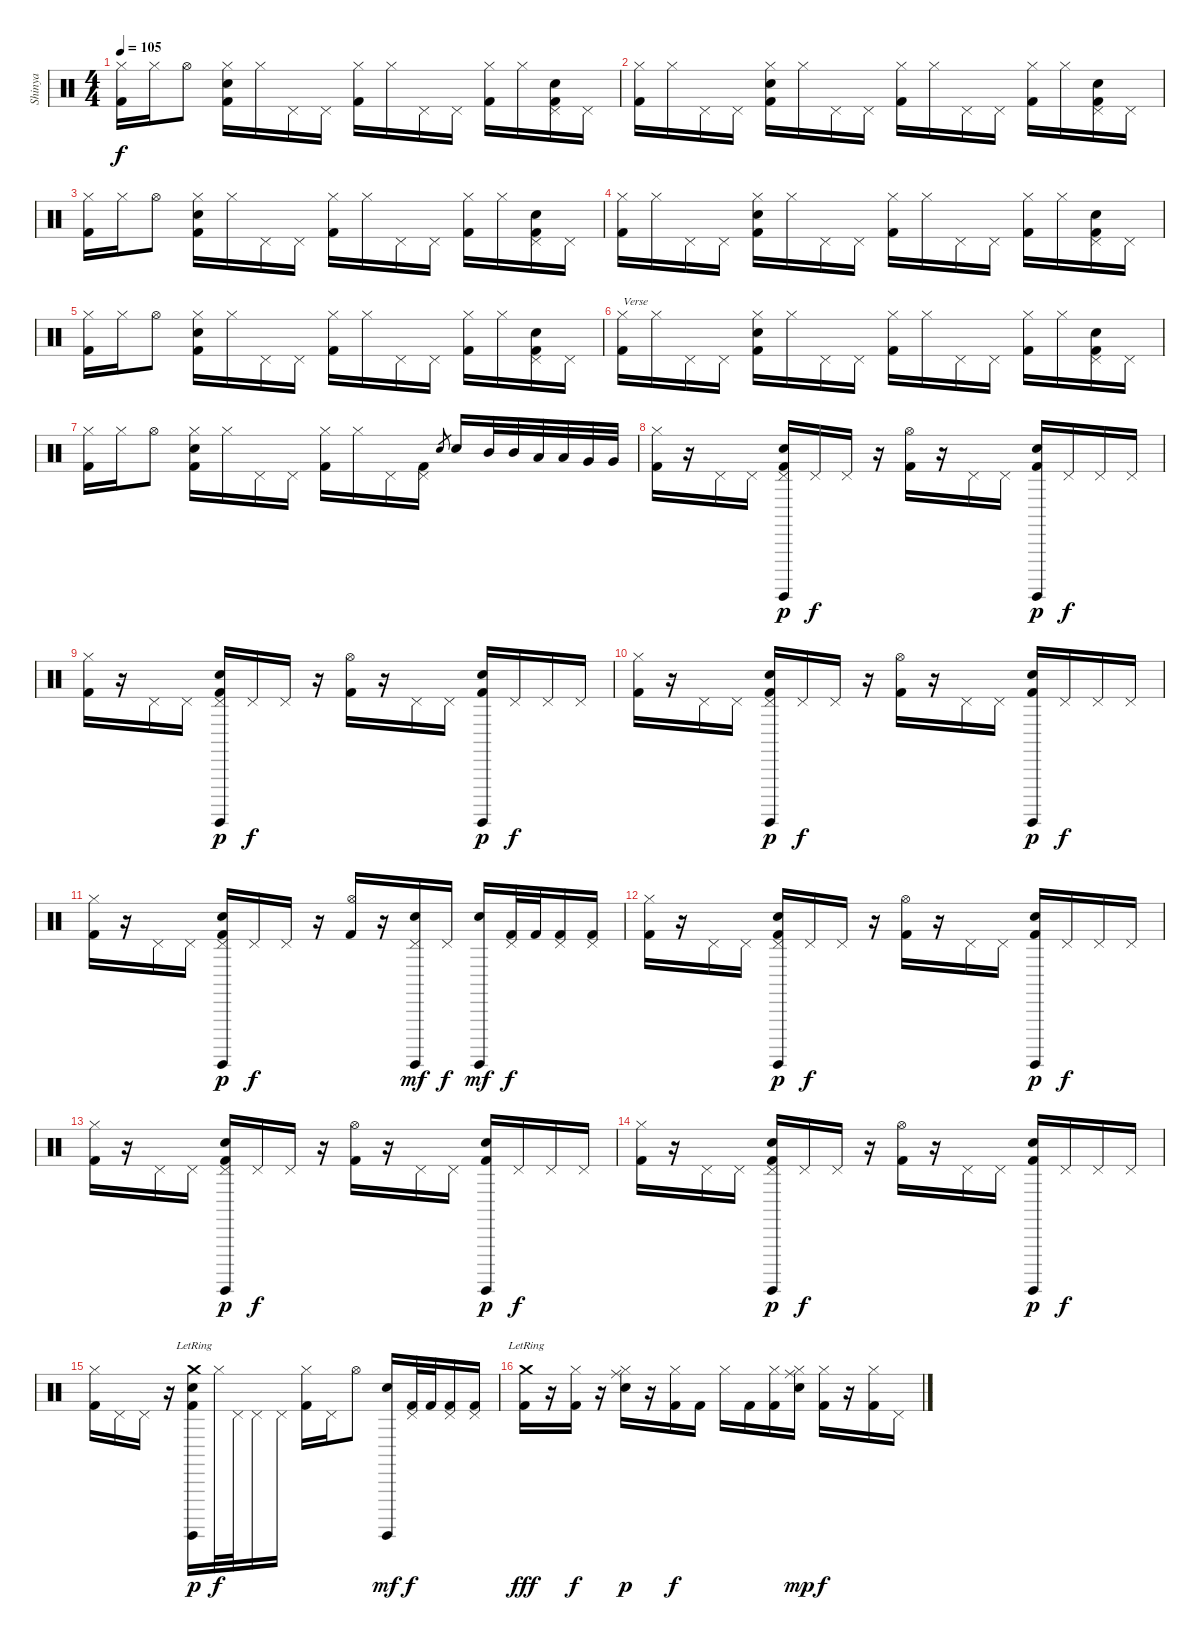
\track ("Shinya" "Shinya") {instrument percussion}
\staff {score}
\articulation defaults
\ts (4 4)
\tempo 105
\clef neutral
\ks c
("Hi-Hat (closed)" "Kick (hit) 2").16{dy f} "Hi-Hat (closed)".16 "Hi-Hat (open)".8 ("Hi-Hat (closed)" "Electric Snare (hit)" "Kick (hit) 2").16 "Hi-Hat (closed)".16 "Pedal Hi-Hat (hit)".16 "Pedal Hi-Hat (hit)".16 ("Hi-Hat (closed)" "Kick (hit) 2").16 "Hi-Hat (closed)".16 "Pedal Hi-Hat (hit)".16 "Pedal Hi-Hat (hit)".16 ("Hi-Hat (closed)" "Kick (hit) 2").16 "Hi-Hat (closed)".16 ("Pedal Hi-Hat (hit)" "Electric Snare (hit)" "Kick (hit) 2").16 "Pedal Hi-Hat (hit)".16 |
("Hi-Hat (closed)" "Kick (hit) 2").16 "Hi-Hat (closed)".16 "Pedal Hi-Hat (hit)".16 "Pedal Hi-Hat (hit)".16 ("Hi-Hat (closed)" "Electric Snare (hit)" "Kick (hit) 2").16 "Hi-Hat (closed)".16 "Pedal Hi-Hat (hit)".16 "Pedal Hi-Hat (hit)".16 ("Hi-Hat (closed)" "Kick (hit) 2").16 "Hi-Hat (closed)".16 "Pedal Hi-Hat (hit)".16 "Pedal Hi-Hat (hit)".16 ("Hi-Hat (closed)" "Kick (hit) 2").16 "Hi-Hat (closed)".16 ("Pedal Hi-Hat (hit)" "Electric Snare (hit)" "Kick (hit) 2").16 "Pedal Hi-Hat (hit)".16 |
("Hi-Hat (closed)" "Kick (hit) 2").16 "Hi-Hat (closed)".16 "Hi-Hat (open)".8 ("Hi-Hat (closed)" "Electric Snare (hit)" "Kick (hit) 2").16 "Hi-Hat (closed)".16 "Pedal Hi-Hat (hit)".16 "Pedal Hi-Hat (hit)".16 ("Hi-Hat (closed)" "Kick (hit) 2").16 "Hi-Hat (closed)".16 "Pedal Hi-Hat (hit)".16 "Pedal Hi-Hat (hit)".16 ("Hi-Hat (closed)" "Kick (hit) 2").16 "Hi-Hat (closed)".16 ("Pedal Hi-Hat (hit)" "Electric Snare (hit)" "Kick (hit) 2").16 "Pedal Hi-Hat (hit)".16 |
("Hi-Hat (closed)" "Kick (hit) 2").16 "Hi-Hat (closed)".16 "Pedal Hi-Hat (hit)".16 "Pedal Hi-Hat (hit)".16 ("Hi-Hat (closed)" "Electric Snare (hit)" "Kick (hit) 2").16 "Hi-Hat (closed)".16 "Pedal Hi-Hat (hit)".16 "Pedal Hi-Hat (hit)".16 ("Hi-Hat (closed)" "Kick (hit) 2").16 "Hi-Hat (closed)".16 "Pedal Hi-Hat (hit)".16 "Pedal Hi-Hat (hit)".16 ("Hi-Hat (closed)" "Kick (hit) 2").16 "Hi-Hat (closed)".16 ("Pedal Hi-Hat (hit)" "Electric Snare (hit)" "Kick (hit) 2").16 "Pedal Hi-Hat (hit)".16 |
("Hi-Hat (closed)" "Kick (hit) 2").16 "Hi-Hat (closed)".16 "Hi-Hat (open)".8 ("Hi-Hat (closed)" "Electric Snare (hit)" "Kick (hit) 2").16 "Hi-Hat (closed)".16 "Pedal Hi-Hat (hit)".16 "Pedal Hi-Hat (hit)".16 ("Hi-Hat (closed)" "Kick (hit) 2").16 "Hi-Hat (closed)".16 "Pedal Hi-Hat (hit)".16 "Pedal Hi-Hat (hit)".16 ("Hi-Hat (closed)" "Kick (hit) 2").16 "Hi-Hat (closed)".16 ("Pedal Hi-Hat (hit)" "Electric Snare (hit)" "Kick (hit) 2").16 "Pedal Hi-Hat (hit)".16 |
\section ("" "")
("Hi-Hat (closed)" "Kick (hit) 2").16{txt "Verse"} "Hi-Hat (closed)".16 "Pedal Hi-Hat (hit)".16 "Pedal Hi-Hat (hit)".16 ("Hi-Hat (closed)" "Electric Snare (hit)" "Kick (hit) 2").16 "Hi-Hat (closed)".16 "Pedal Hi-Hat (hit)".16 "Pedal Hi-Hat (hit)".16 ("Hi-Hat (closed)" "Kick (hit) 2").16 "Hi-Hat (closed)".16 "Pedal Hi-Hat (hit)".16 "Pedal Hi-Hat (hit)".16 ("Hi-Hat (closed)" "Kick (hit) 2").16 "Hi-Hat (closed)".16 ("Pedal Hi-Hat (hit)" "Electric Snare (hit)" "Kick (hit) 2").16 "Pedal Hi-Hat (hit)".16 |
("Hi-Hat (closed)" "Kick (hit) 2").16 "Hi-Hat (closed)".16 "Hi-Hat (open)".8 ("Hi-Hat (closed)" "Electric Snare (hit)" "Kick (hit) 2").16 "Hi-Hat (closed)".16 "Pedal Hi-Hat (hit)".16 "Pedal Hi-Hat (hit)".16 ("Hi-Hat (closed)" "Kick (hit) 2").16 "Hi-Hat (closed)".16 "Pedal Hi-Hat (hit)".16 ("Pedal Hi-Hat (hit)" "Kick (hit) 2").16 "Electric Snare (hit)".8{gr} "Electric Snare (hit)".16 "Mid Tom (hit)".32 "Mid Tom (hit)".32 "Low Tom (hit)".32 "Low Tom (hit)".32 "Very Low Tom (hit)".32 "Very Low Tom (hit)".32 |
("Hi-Hat (closed)" "Kick (hit) 2").16 r.16 "Pedal Hi-Hat (hit)".16 "Pedal Hi-Hat (hit)".16 ("Pedal Hi-Hat (hit)" "Electric Snare (hit)" "Surdo (hit)" "Kick (hit) 2").16{dy p} "Pedal Hi-Hat (hit)".16{dy f} "Pedal Hi-Hat (hit)".16 r.16 ("Hi-Hat (open)" "Kick (hit) 2").16 r.16 "Pedal Hi-Hat (hit)".16 "Pedal Hi-Hat (hit)".16 ("Electric Snare (hit)" "Surdo (hit)" "Kick (hit) 2").16{dy p} "Pedal Hi-Hat (hit)".16{dy f} "Pedal Hi-Hat (hit)".16 "Pedal Hi-Hat (hit)".16 |
("Hi-Hat (closed)" "Kick (hit) 2").16 r.16 "Pedal Hi-Hat (hit)".16 "Pedal Hi-Hat (hit)".16 ("Pedal Hi-Hat (hit)" "Electric Snare (hit)" "Surdo (hit)" "Kick (hit) 2").16{dy p} "Pedal Hi-Hat (hit)".16{dy f} "Pedal Hi-Hat (hit)".16 r.16 ("Hi-Hat (open)" "Kick (hit) 2").16 r.16 "Pedal Hi-Hat (hit)".16 "Pedal Hi-Hat (hit)".16 ("Electric Snare (hit)" "Surdo (hit)" "Kick (hit) 2").16{dy p} "Pedal Hi-Hat (hit)".16{dy f} "Pedal Hi-Hat (hit)".16 "Pedal Hi-Hat (hit)".16 |
("Hi-Hat (closed)" "Kick (hit) 2").16 r.16 "Pedal Hi-Hat (hit)".16 "Pedal Hi-Hat (hit)".16 ("Pedal Hi-Hat (hit)" "Electric Snare (hit)" "Surdo (hit)" "Kick (hit) 2").16{dy p} "Pedal Hi-Hat (hit)".16{dy f} "Pedal Hi-Hat (hit)".16 r.16 ("Hi-Hat (open)" "Kick (hit) 2").16 r.16 "Pedal Hi-Hat (hit)".16 "Pedal Hi-Hat (hit)".16 ("Electric Snare (hit)" "Surdo (hit)" "Kick (hit) 2").16{dy p} "Pedal Hi-Hat (hit)".16{dy f} "Pedal Hi-Hat (hit)".16 "Pedal Hi-Hat (hit)".16 |
("Hi-Hat (closed)" "Kick (hit) 2").16 r.16 "Pedal Hi-Hat (hit)".16 "Pedal Hi-Hat (hit)".16 ("Pedal Hi-Hat (hit)" "Electric Snare (hit)" "Surdo (hit)" "Kick (hit) 2").16{dy p} "Pedal Hi-Hat (hit)".16{dy f} "Pedal Hi-Hat (hit)".16 r.16 ("Hi-Hat (open)" "Kick (hit) 2").16 r.16 ("Pedal Hi-Hat (hit)" "Electric Snare (hit)" "Surdo (hit)").16{dy mf} "Pedal Hi-Hat (hit)".16{dy f} ("Electric Snare (hit)" "Surdo (hit)").16{dy mf} ("Pedal Hi-Hat (hit)" "Kick (hit) 2").32{dy f} "Kick (hit) 2".32 ("Pedal Hi-Hat (hit)" "Kick (hit) 2").16 ("Pedal Hi-Hat (hit)" "Kick (hit) 2").16 |
("Hi-Hat (closed)" "Kick (hit) 2").16 r.16 "Pedal Hi-Hat (hit)".16 "Pedal Hi-Hat (hit)".16 ("Pedal Hi-Hat (hit)" "Electric Snare (hit)" "Surdo (hit)" "Kick (hit) 2").16{dy p} "Pedal Hi-Hat (hit)".16{dy f} "Pedal Hi-Hat (hit)".16 r.16 ("Hi-Hat (open)" "Kick (hit) 2").16 r.16 "Pedal Hi-Hat (hit)".16 "Pedal Hi-Hat (hit)".16 ("Electric Snare (hit)" "Surdo (hit)" "Kick (hit) 2").16{dy p} "Pedal Hi-Hat (hit)".16{dy f} "Pedal Hi-Hat (hit)".16 "Pedal Hi-Hat (hit)".16 |
("Hi-Hat (closed)" "Kick (hit) 2").16 r.16 "Pedal Hi-Hat (hit)".16 "Pedal Hi-Hat (hit)".16 ("Pedal Hi-Hat (hit)" "Electric Snare (hit)" "Surdo (hit)" "Kick (hit) 2").16{dy p} "Pedal Hi-Hat (hit)".16{dy f} "Pedal Hi-Hat (hit)".16 r.16 ("Hi-Hat (open)" "Kick (hit) 2").16 r.16 "Pedal Hi-Hat (hit)".16 "Pedal Hi-Hat (hit)".16 ("Electric Snare (hit)" "Surdo (hit)" "Kick (hit) 2").16{dy p} "Pedal Hi-Hat (hit)".16{dy f} "Pedal Hi-Hat (hit)".16 "Pedal Hi-Hat (hit)".16 |
("Hi-Hat (closed)" "Kick (hit) 2").16 r.16 "Pedal Hi-Hat (hit)".16 "Pedal Hi-Hat (hit)".16 ("Pedal Hi-Hat (hit)" "Electric Snare (hit)" "Surdo (hit)" "Kick (hit) 2").16{dy p} "Pedal Hi-Hat (hit)".16{dy f} "Pedal Hi-Hat (hit)".16 r.16 ("Hi-Hat (open)" "Kick (hit) 2").16 r.16 "Pedal Hi-Hat (hit)".16 "Pedal Hi-Hat (hit)".16 ("Electric Snare (hit)" "Surdo (hit)" "Kick (hit) 2").16{dy p} "Pedal Hi-Hat (hit)".16{dy f} "Pedal Hi-Hat (hit)".16 "Pedal Hi-Hat (hit)".16 |
("Hi-Hat (closed)" "Kick (hit) 2").16 "Pedal Hi-Hat (hit)".16 "Pedal Hi-Hat (hit)".16 r.16 ("Crash medium (hit)"{lr} "Electric Snare (hit)" "Surdo (hit)" "Kick (hit) 2").16{dy p} "Hi-Hat (closed)".32{dy f} "Pedal Hi-Hat (hit)".32 "Pedal Hi-Hat (hit)".16 "Pedal Hi-Hat (hit)".16 ("Hi-Hat (closed)" "Kick (hit) 2").16 "Pedal Hi-Hat (hit)".16 "Hi-Hat (open)".8 ("Electric Snare (hit)" "Surdo (hit)").16{dy mf} ("Pedal Hi-Hat (hit)" "Kick (hit) 2").32{dy f} "Kick (hit) 2".32 ("Pedal Hi-Hat (hit)" "Kick (hit) 2").16 ("Pedal Hi-Hat (hit)" "Kick (hit) 2").16 |
\section ("" "")
("Crash medium (hit)"{lr} "Kick (hit) 2").16{dy fff} r.16 ("Hi-Hat (closed)" "Kick (hit) 2").16{dy f} r.16 ("Ride (middle)" "Hi-Hat (closed)" "Electric Snare (hit)").16{dy p} r.16 ("Hi-Hat (closed)" "Kick (hit) 2").16{dy f} "Kick (hit) 2".16 "Hi-Hat (closed)".16 "Kick (hit) 2".16 ("Hi-Hat (closed)" "Kick (hit) 2").16 ("Ride (middle)" "Hi-Hat (closed)" "Electric Snare (hit)").16{dy mp} ("Hi-Hat (closed)" "Kick (hit) 2").16{dy f} r.16 ("Hi-Hat (closed)" "Kick (hit) 2").16 "Pedal Hi-Hat (hit)".16
